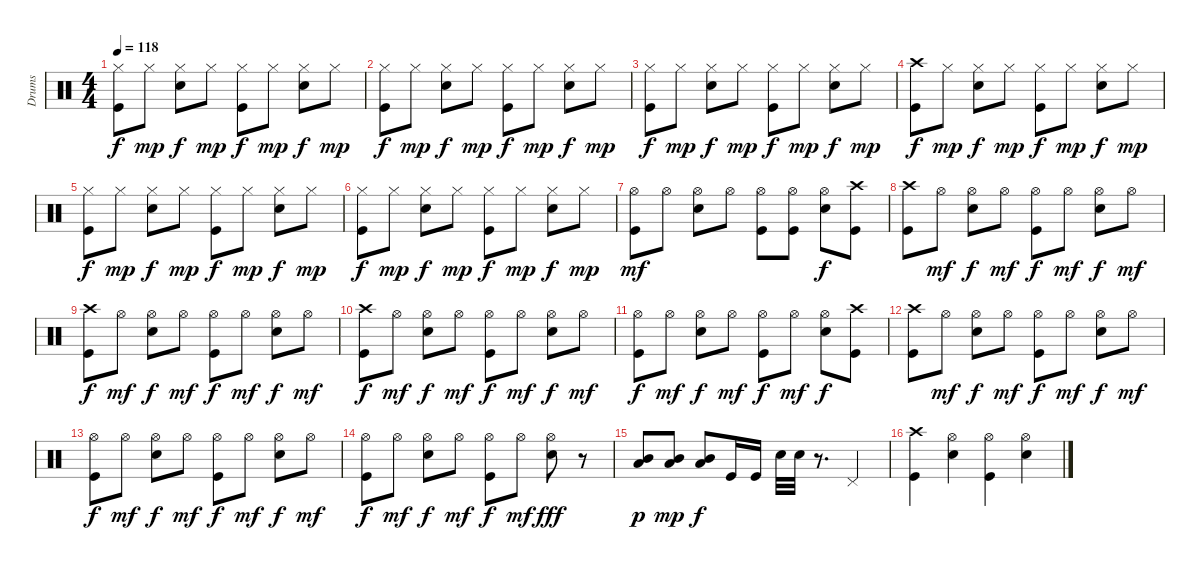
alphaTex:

\track ("Drums" "Drums") {instrument percussion}
\staff {score}
\articulation defaults
\ts (4 4)
\tempo 118
\clef neutral
\ks c
("Hi-Hat (closed)" "Kick (hit)").8{dy f} "Hi-Hat (closed)".8{dy mp} ("Hi-Hat (closed)" "Snare (hit) 2").8{dy f} "Hi-Hat (closed)".8{dy mp} ("Hi-Hat (closed)" "Kick (hit)").8{dy f} "Hi-Hat (closed)".8{dy mp} ("Hi-Hat (closed)" "Snare (hit) 2").8{dy f} "Hi-Hat (closed)".8{dy mp} |
("Hi-Hat (closed)" "Kick (hit)").8{dy f} "Hi-Hat (closed)".8{dy mp} ("Hi-Hat (closed)" "Snare (hit) 2").8{dy f} "Hi-Hat (closed)".8{dy mp} ("Hi-Hat (closed)" "Kick (hit)").8{dy f} "Hi-Hat (closed)".8{dy mp} ("Hi-Hat (closed)" "Snare (hit) 2").8{dy f} "Hi-Hat (closed)".8{dy mp} |
("Hi-Hat (closed)" "Kick (hit)").8{dy f} "Hi-Hat (closed)".8{dy mp} ("Hi-Hat (closed)" "Snare (hit) 2").8{dy f} "Hi-Hat (closed)".8{dy mp} ("Hi-Hat (closed)" "Kick (hit)").8{dy f} "Hi-Hat (closed)".8{dy mp} ("Hi-Hat (closed)" "Snare (hit) 2").8{dy f} "Hi-Hat (closed)".8{dy mp} |
("Crash high (hit)" "Kick (hit)").8{dy f} "Hi-Hat (closed)".8{dy mp} ("Hi-Hat (closed)" "Snare (hit) 2").8{dy f} "Hi-Hat (closed)".8{dy mp} ("Hi-Hat (closed)" "Kick (hit)").8{dy f} "Hi-Hat (closed)".8{dy mp} ("Hi-Hat (closed)" "Snare (hit) 2").8{dy f} "Hi-Hat (closed)".8{dy mp} |
("Hi-Hat (closed)" "Kick (hit)").8{dy f} "Hi-Hat (closed)".8{dy mp} ("Hi-Hat (closed)" "Snare (hit) 2").8{dy f} "Hi-Hat (closed)".8{dy mp} ("Hi-Hat (closed)" "Kick (hit)").8{dy f} "Hi-Hat (closed)".8{dy mp} ("Hi-Hat (closed)" "Snare (hit) 2").8{dy f} "Hi-Hat (closed)".8{dy mp} |
("Hi-Hat (closed)" "Kick (hit)").8{dy f} "Hi-Hat (closed)".8{dy mp} ("Hi-Hat (closed)" "Snare (hit) 2").8{dy f} "Hi-Hat (closed)".8{dy mp} ("Hi-Hat (closed)" "Kick (hit)").8{dy f} "Hi-Hat (closed)".8{dy mp} ("Hi-Hat (closed)" "Snare (hit) 2").8{dy f} "Hi-Hat (closed)".8{dy mp} |
("Hi-Hat (open)" "Kick (hit)").8{dy mf} "Hi-Hat (open)".8 ("Hi-Hat (open)" "Snare (hit) 2").8 "Hi-Hat (open)".8 ("Hi-Hat (open)" "Kick (hit)").8 ("Hi-Hat (open)" "Kick (hit)").8 ("Hi-Hat (open)" "Snare (hit) 2").8{dy f} ("Crash high (hit)" "Kick (hit)").8 |
("Crash high (hit)" "Kick (hit)").8 "Hi-Hat (open)".8{dy mf} ("Hi-Hat (open)" "Snare (hit) 2").8{dy f} "Hi-Hat (open)".8{dy mf} ("Hi-Hat (open)" "Kick (hit)").8{dy f} "Hi-Hat (open)".8{dy mf} ("Hi-Hat (open)" "Snare (hit) 2").8{dy f} "Hi-Hat (open)".8{dy mf} |
("Crash high (hit)" "Kick (hit)").8{dy f} "Hi-Hat (open)".8{dy mf} ("Hi-Hat (open)" "Snare (hit) 2").8{dy f} "Hi-Hat (open)".8{dy mf} ("Hi-Hat (open)" "Kick (hit)").8{dy f} "Hi-Hat (open)".8{dy mf} ("Hi-Hat (open)" "Snare (hit) 2").8{dy f} "Hi-Hat (open)".8{dy mf} |
("Crash high (hit)" "Kick (hit)").8{dy f} "Hi-Hat (open)".8{dy mf} ("Hi-Hat (open)" "Snare (hit) 2").8{dy f} "Hi-Hat (open)".8{dy mf} ("Hi-Hat (open)" "Kick (hit)").8{dy f} "Hi-Hat (open)".8{dy mf} ("Hi-Hat (open)" "Snare (hit) 2").8{dy f} "Hi-Hat (open)".8{dy mf} |
("Hi-Hat (open)" "Kick (hit)").8{dy f} "Hi-Hat (open)".8{dy mf} ("Hi-Hat (open)" "Snare (hit) 2").8{dy f} "Hi-Hat (open)".8{dy mf} ("Hi-Hat (open)" "Kick (hit)").8{dy f} "Hi-Hat (open)".8{dy mf} ("Hi-Hat (open)" "Snare (hit) 2").8{dy f} ("Crash high (hit)" "Kick (hit)").8 |
("Crash high (hit)" "Kick (hit)").8 "Hi-Hat (open)".8{dy mf} ("Hi-Hat (open)" "Snare (hit) 2").8{dy f} "Hi-Hat (open)".8{dy mf} ("Hi-Hat (open)" "Kick (hit)").8{dy f} "Hi-Hat (open)".8{dy mf} ("Hi-Hat (open)" "Snare (hit) 2").8{dy f} "Hi-Hat (open)".8{dy mf} |
("Hi-Hat (open)" "Kick (hit)").8{dy f} "Hi-Hat (open)".8{dy mf} ("Hi-Hat (open)" "Snare (hit) 2").8{dy f} "Hi-Hat (open)".8{dy mf} ("Hi-Hat (open)" "Kick (hit)").8{dy f} "Hi-Hat (open)".8{dy mf} ("Hi-Hat (open)" "Snare (hit) 2").8{dy f} "Hi-Hat (open)".8{dy mf} |
("Hi-Hat (open)" "Kick (hit)").8{dy f} "Hi-Hat (open)".8{dy mf} ("Hi-Hat (open)" "Snare (hit) 2").8{dy f} "Hi-Hat (open)".8{dy mf} ("Hi-Hat (open)" "Kick (hit)").8{dy f} "Hi-Hat (open)".8{dy mf} ("Hi-Hat (open)" "Snare (hit) 2").8{dy fff} r.8 |
("Mid Tom (hit)" "Low Floor Tom (hit)").8{dy p} ("Mid Tom (hit)" "Low Floor Tom (hit)").8{dy mp} ("Mid Tom (hit)" "Low Floor Tom (hit)").8{dy f} "Kick (hit)".16 "Kick (hit)".16 "Snare (hit) 2".32 "Snare (hit) 2".32 r.8{d} "Pedal Hi-Hat (hit)".4 |
("Crash high (hit)" "Kick (hit)").4 ("Hi-Hat (open)" "Snare (hit) 2").4 ("Hi-Hat (open)" "Kick (hit)").4 ("Hi-Hat (open)" "Snare (hit) 2").4
